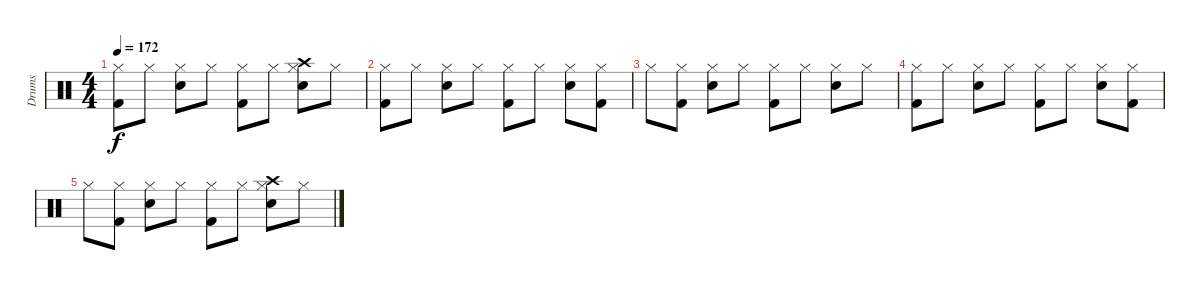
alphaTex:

\track ("Drums" "Drums") {instrument percussion}
\staff {score}
\articulation defaults
\ts (4 4)
\tempo 172
\clef neutral
\ks c
("Hi-Hat (closed)" "Kick (hit) 2").8{dy f} "Hi-Hat (closed)".8 ("Hi-Hat (closed)" "Snare (hit) 2").8 "Hi-Hat (closed)".8 ("Hi-Hat (closed)" "Kick (hit) 2").8 "Hi-Hat (closed)".8 ("Hi-Hat (closed)" "Snare (hit) 2" "Crash high (hit)").8 "Hi-Hat (closed)".8 |
("Hi-Hat (closed)" "Kick (hit) 2").8 "Hi-Hat (closed)".8 ("Hi-Hat (closed)" "Snare (hit) 2").8 "Hi-Hat (closed)".8 ("Hi-Hat (closed)" "Kick (hit) 2").8 "Hi-Hat (closed)".8 ("Hi-Hat (closed)" "Snare (hit) 2").8 ("Hi-Hat (closed)" "Kick (hit) 2").8 |
"Hi-Hat (closed)".8 ("Hi-Hat (closed)" "Kick (hit) 2").8 ("Hi-Hat (closed)" "Snare (hit) 2").8 "Hi-Hat (closed)".8 ("Hi-Hat (closed)" "Kick (hit) 2").8 "Hi-Hat (closed)".8 ("Hi-Hat (closed)" "Snare (hit) 2").8 "Hi-Hat (closed)".8 |
("Hi-Hat (closed)" "Kick (hit) 2").8 "Hi-Hat (closed)".8 ("Hi-Hat (closed)" "Snare (hit) 2").8 "Hi-Hat (closed)".8 ("Hi-Hat (closed)" "Kick (hit) 2").8 "Hi-Hat (closed)".8 ("Hi-Hat (closed)" "Snare (hit) 2").8 ("Hi-Hat (closed)" "Kick (hit) 2").8 |
"Hi-Hat (closed)".8 ("Hi-Hat (closed)" "Kick (hit) 2").8 ("Hi-Hat (closed)" "Snare (hit) 2").8 "Hi-Hat (closed)".8 ("Hi-Hat (closed)" "Kick (hit) 2").8 "Hi-Hat (closed)".8 ("Hi-Hat (closed)" "Snare (hit) 2" "Crash high (hit)").8 "Hi-Hat (closed)".8
